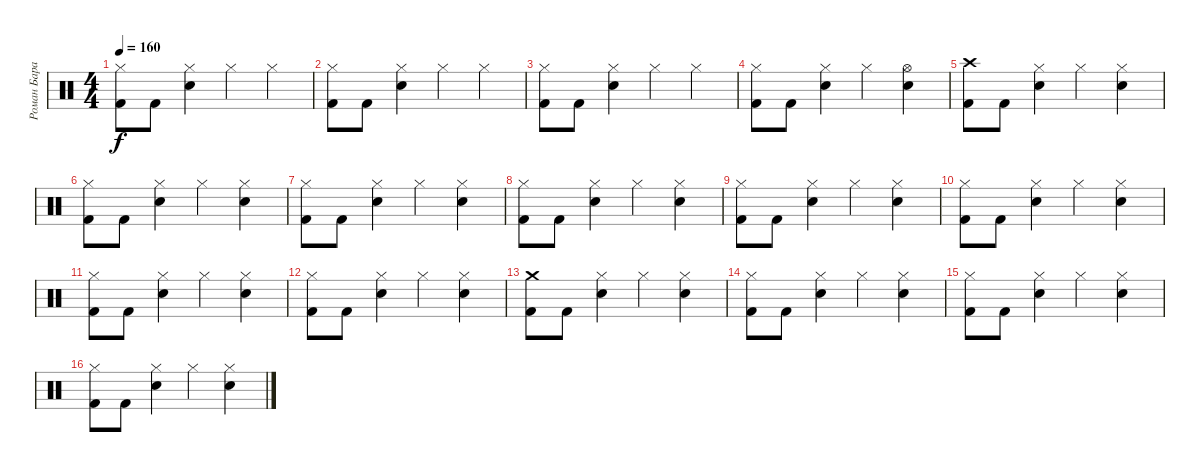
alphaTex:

\track ("Роман Баранюк" "Роман Бара") {instrument percussion}
\staff {score}
\articulation defaults
\ts (4 4)
\tempo 160
\clef neutral
\ks c
("Hi-Hat (closed)" "Kick (hit) 2").8{dy f} "Kick (hit) 2".8 ("Hi-Hat (closed)" "Snare (hit) 2").4 "Hi-Hat (closed)".4 "Hi-Hat (closed)".4 |
("Hi-Hat (closed)" "Kick (hit) 2").8 "Kick (hit) 2".8 ("Hi-Hat (closed)" "Snare (hit) 2").4 "Hi-Hat (closed)".4 "Hi-Hat (closed)".4 |
("Hi-Hat (closed)" "Kick (hit) 2").8 "Kick (hit) 2".8 ("Hi-Hat (closed)" "Snare (hit) 2").4 "Hi-Hat (closed)".4 "Hi-Hat (closed)".4 |
("Hi-Hat (closed)" "Kick (hit) 2").8 "Kick (hit) 2".8 ("Hi-Hat (closed)" "Snare (hit) 2").4 "Hi-Hat (closed)".4 ("Hi-Hat (open)" "Snare (hit) 2").4 |
("Crash high (hit)" "Kick (hit) 2").8 "Kick (hit) 2".8 ("Hi-Hat (closed)" "Snare (hit) 2").4 "Hi-Hat (closed)".4 ("Hi-Hat (closed)" "Snare (hit) 2").4 |
("Hi-Hat (closed)" "Kick (hit) 2").8 "Kick (hit) 2".8 ("Hi-Hat (closed)" "Snare (hit) 2").4 "Hi-Hat (closed)".4 ("Hi-Hat (closed)" "Snare (hit) 2").4 |
("Hi-Hat (closed)" "Kick (hit) 2").8 "Kick (hit) 2".8 ("Hi-Hat (closed)" "Snare (hit) 2").4 "Hi-Hat (closed)".4 ("Hi-Hat (closed)" "Snare (hit) 2").4 |
("Hi-Hat (closed)" "Kick (hit) 2").8 "Kick (hit) 2".8 ("Hi-Hat (closed)" "Snare (hit) 2").4 "Hi-Hat (closed)".4 ("Hi-Hat (closed)" "Snare (hit) 2").4 |
("Hi-Hat (closed)" "Kick (hit) 2").8 "Kick (hit) 2".8 ("Hi-Hat (closed)" "Snare (hit) 2").4 "Hi-Hat (closed)".4 ("Hi-Hat (closed)" "Snare (hit) 2").4 |
("Hi-Hat (closed)" "Kick (hit) 2").8 "Kick (hit) 2".8 ("Hi-Hat (closed)" "Snare (hit) 2").4 "Hi-Hat (closed)".4 ("Hi-Hat (closed)" "Snare (hit) 2").4 |
("Hi-Hat (closed)" "Kick (hit) 2").8 "Kick (hit) 2".8 ("Hi-Hat (closed)" "Snare (hit) 2").4 "Hi-Hat (closed)".4 ("Hi-Hat (closed)" "Snare (hit) 2").4 |
("Hi-Hat (closed)" "Kick (hit) 2").8 "Kick (hit) 2".8 ("Hi-Hat (closed)" "Snare (hit) 2").4 "Hi-Hat (closed)".4 ("Hi-Hat (closed)" "Snare (hit) 2").4 |
("Crash medium (hit)" "Kick (hit) 2").8 "Kick (hit) 2".8 ("Hi-Hat (closed)" "Snare (hit) 2").4 "Hi-Hat (closed)".4 ("Hi-Hat (closed)" "Snare (hit) 2").4 |
("Hi-Hat (closed)" "Kick (hit) 2").8 "Kick (hit) 2".8 ("Hi-Hat (closed)" "Snare (hit) 2").4 "Hi-Hat (closed)".4 ("Hi-Hat (closed)" "Snare (hit) 2").4 |
("Hi-Hat (closed)" "Kick (hit) 2").8 "Kick (hit) 2".8 ("Hi-Hat (closed)" "Snare (hit) 2").4 "Hi-Hat (closed)".4 ("Hi-Hat (closed)" "Snare (hit) 2").4 |
("Hi-Hat (closed)" "Kick (hit) 2").8 "Kick (hit) 2".8 ("Hi-Hat (closed)" "Snare (hit) 2").4 "Hi-Hat (closed)".4 ("Hi-Hat (closed)" "Snare (hit) 2").4
